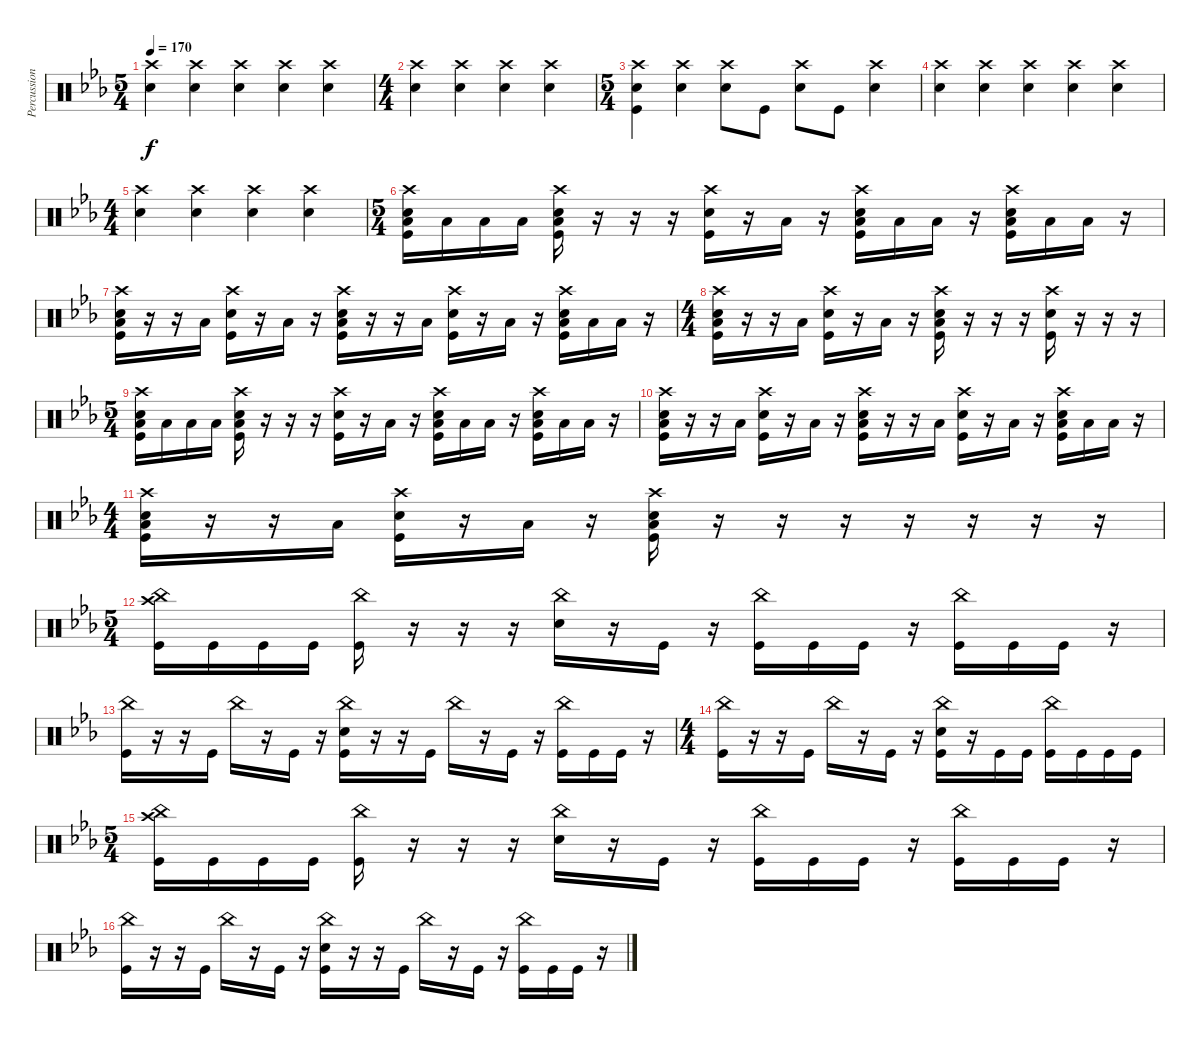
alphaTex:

\track ("Percussion" "Percussion") {instrument percussion}
\staff {score}
\articulation defaults
\ts (5 4)
\tempo 170
\clef neutral
\ks cminor
("Crash high (hit)" "Snare (hit) 2").4{dy f} ("Crash high (hit)" "Snare (hit) 2").4 ("Crash high (hit)" "Snare (hit) 2").4 ("Crash high (hit)" "Snare (hit) 2").4 ("Crash high (hit)" "Snare (hit) 2").4 |
\ts (4 4)
("Crash high (hit)" "Snare (hit) 2").4 ("Crash high (hit)" "Snare (hit) 2").4 ("Crash high (hit)" "Snare (hit) 2").4 ("Crash high (hit)" "Snare (hit) 2").4 |
\ts (5 4)
("Crash high (hit)" "Snare (hit) 2" "Kick (hit)").4 ("Crash high (hit)" "Snare (hit) 2").4 ("Crash high (hit)" "Snare (hit) 2").8 "Kick (hit)".8 ("Crash high (hit)" "Snare (hit) 2").8 "Kick (hit)".8 ("Crash high (hit)" "Snare (hit) 2").4 |
("Crash high (hit)" "Snare (hit) 2").4 ("Crash high (hit)" "Snare (hit) 2").4 ("Crash high (hit)" "Snare (hit) 2").4 ("Crash high (hit)" "Snare (hit) 2").4 ("Crash high (hit)" "Snare (hit) 2").4 |
\ts (4 4)
("Crash high (hit)" "Snare (hit) 2").4 ("Crash high (hit)" "Snare (hit) 2").4 ("Crash high (hit)" "Snare (hit) 2").4 ("Crash high (hit)" "Snare (hit) 2").4 |
\ts (5 4)
("Crash high (hit)" "Snare (hit) 2" "Low Floor Tom (hit)" "Kick (hit)").16 "Low Floor Tom (hit)".16 "Low Floor Tom (hit)".16 "Low Floor Tom (hit)".16 ("Crash high (hit)" "Snare (hit) 2" "Low Floor Tom (hit)" "Kick (hit)").16 r.16 r.16 r.16 ("Crash high (hit)" "Snare (hit) 2" "Kick (hit)").16 r.16 "Low Floor Tom (hit)".16 r.16 ("Crash high (hit)" "Snare (hit) 2" "Low Floor Tom (hit)" "Kick (hit)").16 "Low Floor Tom (hit)".16 "Low Floor Tom (hit)".16 r.16 ("Crash high (hit)" "Snare (hit) 2" "Low Floor Tom (hit)" "Kick (hit)").16 "Low Floor Tom (hit)".16 "Low Floor Tom (hit)".16 r.16 |
("Crash high (hit)" "Snare (hit) 2" "Low Floor Tom (hit)" "Kick (hit)").16 r.16 r.16 "Low Floor Tom (hit)".16 ("Crash high (hit)" "Snare (hit) 2" "Kick (hit)").16 r.16 "Low Floor Tom (hit)".16 r.16 ("Crash high (hit)" "Snare (hit) 2" "Low Floor Tom (hit)" "Kick (hit)").16 r.16 r.16 "Low Floor Tom (hit)".16 ("Crash high (hit)" "Snare (hit) 2" "Kick (hit)").16 r.16 "Low Floor Tom (hit)".16 r.16 ("Crash high (hit)" "Snare (hit) 2" "Low Floor Tom (hit)" "Kick (hit)").16 "Low Floor Tom (hit)".16 "Low Floor Tom (hit)".16 r.16 |
\ts (4 4)
("Crash high (hit)" "Snare (hit) 2" "Low Floor Tom (hit)" "Kick (hit)").16 r.16 r.16 "Low Floor Tom (hit)".16 ("Crash high (hit)" "Snare (hit) 2" "Kick (hit)").16 r.16 "Low Floor Tom (hit)".16 r.16 ("Crash high (hit)" "Snare (hit) 2" "Low Floor Tom (hit)" "Kick (hit)").16 r.16 r.16 r.16 ("Crash high (hit)" "Snare (hit) 2" "Kick (hit)").16 r.16 r.16 r.16 |
\ts (5 4)
("Crash high (hit)" "Snare (hit) 2" "Low Floor Tom (hit)" "Kick (hit)").16 "Low Floor Tom (hit)".16 "Low Floor Tom (hit)".16 "Low Floor Tom (hit)".16 ("Crash high (hit)" "Snare (hit) 2" "Low Floor Tom (hit)" "Kick (hit)").16 r.16 r.16 r.16 ("Crash high (hit)" "Snare (hit) 2" "Kick (hit)").16 r.16 "Low Floor Tom (hit)".16 r.16 ("Crash high (hit)" "Snare (hit) 2" "Low Floor Tom (hit)" "Kick (hit)").16 "Low Floor Tom (hit)".16 "Low Floor Tom (hit)".16 r.16 ("Crash high (hit)" "Snare (hit) 2" "Low Floor Tom (hit)" "Kick (hit)").16 "Low Floor Tom (hit)".16 "Low Floor Tom (hit)".16 r.16 |
("Crash high (hit)" "Snare (hit) 2" "Low Floor Tom (hit)" "Kick (hit)").16 r.16 r.16 "Low Floor Tom (hit)".16 ("Crash high (hit)" "Snare (hit) 2" "Kick (hit)").16 r.16 "Low Floor Tom (hit)".16 r.16 ("Crash high (hit)" "Snare (hit) 2" "Low Floor Tom (hit)" "Kick (hit)").16 r.16 r.16 "Low Floor Tom (hit)".16 ("Crash high (hit)" "Snare (hit) 2" "Kick (hit)").16 r.16 "Low Floor Tom (hit)".16 r.16 ("Crash high (hit)" "Snare (hit) 2" "Low Floor Tom (hit)" "Kick (hit)").16 "Low Floor Tom (hit)".16 "Low Floor Tom (hit)".16 r.16 |
\ts (4 4)
("Crash high (hit)" "Snare (hit) 2" "Low Floor Tom (hit)" "Kick (hit)").16 r.16 r.16 "Low Floor Tom (hit)".16 ("Crash high (hit)" "Snare (hit) 2" "Kick (hit)").16 r.16 "Low Floor Tom (hit)".16 r.16 ("Crash high (hit)" "Snare (hit) 2" "Low Floor Tom (hit)" "Kick (hit)").16 r.16 r.16 r.16 r.16 r.16 r.16 r.16 |
\ts (5 4)
("China (hit)" "Crash high (hit)" "Kick (hit)").16 "Kick (hit)".16 "Kick (hit)".16 "Kick (hit)".16 ("China (hit)" "Kick (hit)").16 r.16 r.16 r.16 ("China (hit)" "Snare (hit) 2").16 r.16 "Kick (hit)".16 r.16 ("China (hit)" "Kick (hit)").16 "Kick (hit)".16 "Kick (hit)".16 r.16 ("China (hit)" "Kick (hit)").16 "Kick (hit)".16 "Kick (hit)".16 r.16 |
("China (hit)" "Kick (hit)").16 r.16 r.16 "Kick (hit)".16 "China (hit)".16 r.16 "Kick (hit)".16 r.16 ("China (hit)" "Snare (hit) 2" "Kick (hit)").16 r.16 r.16 "Kick (hit)".16 "China (hit)".16 r.16 "Kick (hit)".16 r.16 ("China (hit)" "Kick (hit)").16 "Kick (hit)".16 "Kick (hit)".16 r.16 |
\ts (4 4)
("China (hit)" "Kick (hit)").16 r.16 r.16 "Kick (hit)".16 "China (hit)".16 r.16 "Kick (hit)".16 r.16 ("China (hit)" "Snare (hit) 2" "Kick (hit)").16 r.16 "Kick (hit)".16 "Kick (hit)".16 ("China (hit)" "Kick (hit)").16 "Kick (hit)".16 "Kick (hit)".16 "Kick (hit)".16 |
\ts (5 4)
("China (hit)" "Crash high (hit)" "Kick (hit)").16 "Kick (hit)".16 "Kick (hit)".16 "Kick (hit)".16 ("China (hit)" "Kick (hit)").16 r.16 r.16 r.16 ("China (hit)" "Snare (hit) 2").16 r.16 "Kick (hit)".16 r.16 ("China (hit)" "Kick (hit)").16 "Kick (hit)".16 "Kick (hit)".16 r.16 ("China (hit)" "Kick (hit)").16 "Kick (hit)".16 "Kick (hit)".16 r.16 |
("China (hit)" "Kick (hit)").16 r.16 r.16 "Kick (hit)".16 "China (hit)".16 r.16 "Kick (hit)".16 r.16 ("China (hit)" "Snare (hit) 2" "Kick (hit)").16 r.16 r.16 "Kick (hit)".16 "China (hit)".16 r.16 "Kick (hit)".16 r.16 ("China (hit)" "Kick (hit)").16 "Kick (hit)".16 "Kick (hit)".16 r.16
